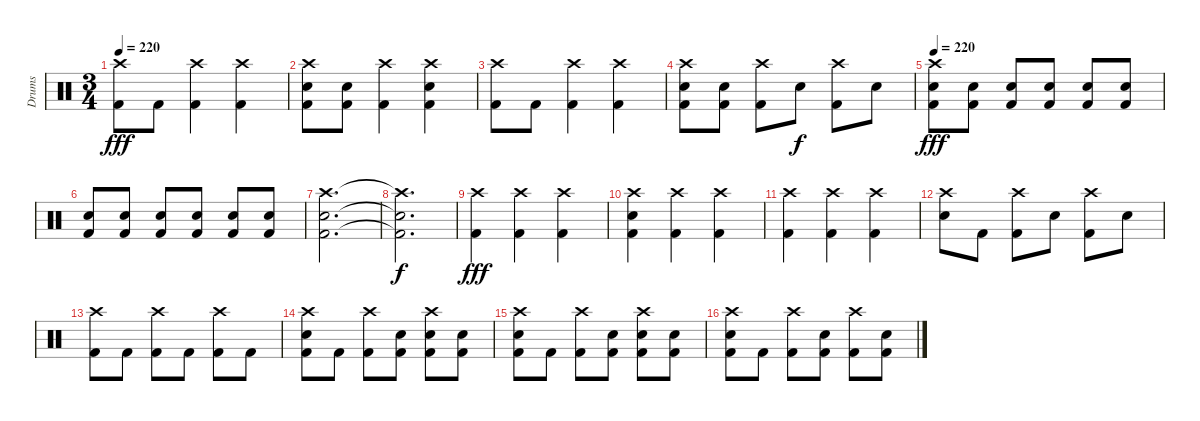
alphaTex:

\track ("Drums" "Drums") {instrument percussion}
\staff {score}
\articulation defaults
\ts (3 4)
\tempo 220
\clef neutral
\ks c
("Crash high (hit)" "Kick (hit) 2").8{dy fff} "Kick (hit) 2".8 ("Crash high (hit)" "Kick (hit) 2").4 ("Crash high (hit)" "Kick (hit) 2").4 |
("Crash high (hit)" "Electric Snare (hit)" "Kick (hit) 2").8 ("Electric Snare (hit)" "Kick (hit) 2").8 ("Crash high (hit)" "Kick (hit) 2").4 ("Crash high (hit)" "Electric Snare (hit)" "Kick (hit) 2").4 |
("Crash high (hit)" "Kick (hit) 2").8 "Kick (hit) 2".8 ("Crash high (hit)" "Kick (hit) 2").4 ("Crash high (hit)" "Kick (hit) 2").4 |
("Crash high (hit)" "Electric Snare (hit)" "Kick (hit) 2").8 ("Electric Snare (hit)" "Kick (hit) 2").8 ("Crash high (hit)" "Kick (hit) 2").8 "Electric Snare (hit)".8{dy f} ("Crash high (hit)" "Kick (hit) 2").8 "Electric Snare (hit)".8 |
\tempo 220
("Crash high (hit)" "Electric Snare (hit)" "Kick (hit) 2").8{dy fff} ("Electric Snare (hit)" "Kick (hit) 2").8 ("Electric Snare (hit)" "Kick (hit) 2").8 ("Electric Snare (hit)" "Kick (hit) 2").8 ("Electric Snare (hit)" "Kick (hit) 2").8 ("Electric Snare (hit)" "Kick (hit) 2").8 |
("Electric Snare (hit)" "Kick (hit) 2").8 ("Electric Snare (hit)" "Kick (hit) 2").8 ("Electric Snare (hit)" "Kick (hit) 2").8 ("Electric Snare (hit)" "Kick (hit) 2").8 ("Electric Snare (hit)" "Kick (hit) 2").8 ("Electric Snare (hit)" "Kick (hit) 2").8 |
("Crash high (hit)" "Electric Snare (hit)" "Kick (hit) 2").2{d} |
("Crash high (hit)"{t} "Electric Snare (hit)"{t} "Kick (hit) 2"{t}).2{d dy f} |
("Crash high (hit)" "Kick (hit) 2").4{dy fff} ("Crash high (hit)" "Kick (hit) 2").4 ("Crash high (hit)" "Kick (hit) 2").4 |
("Crash high (hit)" "Electric Snare (hit)" "Kick (hit) 2").4 ("Crash high (hit)" "Kick (hit) 2").4 ("Crash high (hit)" "Kick (hit) 2").4 |
("Crash high (hit)" "Kick (hit) 2").4 ("Crash high (hit)" "Kick (hit) 2").4 ("Crash high (hit)" "Kick (hit) 2").4 |
("Crash high (hit)" "Electric Snare (hit)").8 "Kick (hit) 2".8 ("Crash high (hit)" "Kick (hit) 2").8 "Electric Snare (hit)".8 ("Crash high (hit)" "Kick (hit) 2").8 "Electric Snare (hit)".8 |
("Crash high (hit)" "Kick (hit) 2").8 "Kick (hit) 2".8 ("Crash high (hit)" "Kick (hit) 2").8 "Kick (hit) 2".8 ("Crash high (hit)" "Kick (hit) 2").8 "Kick (hit) 2".8 |
("Crash high (hit)" "Electric Snare (hit)" "Kick (hit) 2").8 "Kick (hit) 2".8 ("Crash high (hit)" "Kick (hit) 2").8 ("Electric Snare (hit)" "Kick (hit) 2").8 ("Crash high (hit)" "Electric Snare (hit)" "Kick (hit) 2").8 ("Electric Snare (hit)" "Kick (hit) 2").8 |
("Crash high (hit)" "Electric Snare (hit)" "Kick (hit) 2").8 "Kick (hit) 2".8 ("Crash high (hit)" "Kick (hit) 2").8 ("Electric Snare (hit)" "Kick (hit) 2").8 ("Crash high (hit)" "Electric Snare (hit)" "Kick (hit) 2").8 ("Electric Snare (hit)" "Kick (hit) 2").8 |
("Crash high (hit)" "Electric Snare (hit)" "Kick (hit) 2").8 "Kick (hit) 2".8 ("Crash high (hit)" "Kick (hit) 2").8 ("Electric Snare (hit)" "Kick (hit) 2").8 ("Crash high (hit)" "Kick (hit) 2").8 ("Electric Snare (hit)" "Kick (hit) 2").8
